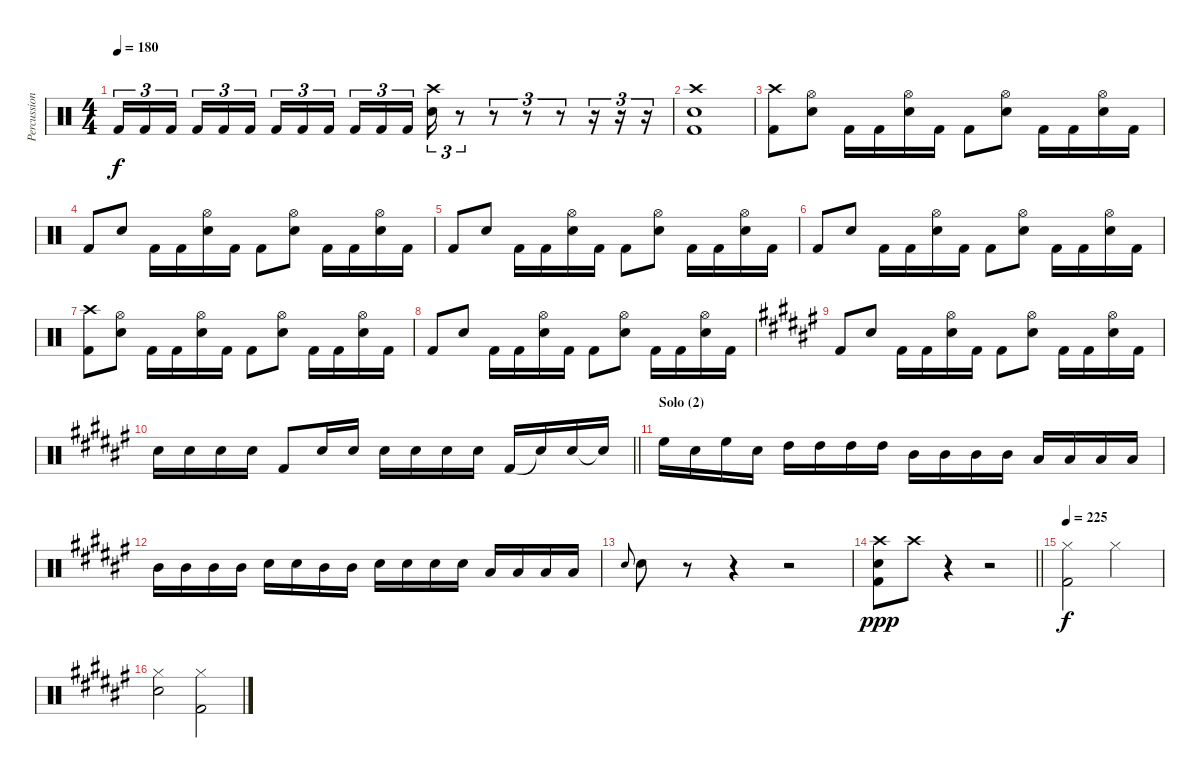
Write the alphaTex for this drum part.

\track ("Percussions" "Percussion") {instrument percussion}
\staff {score}
\articulation defaults
\ts (4 4)
\tempo 180
\clef neutral
\ks c "Kick (hit) 2".16{tu (3 2) dy f} "Kick (hit) 2".16{tu (3 2)} "Kick (hit) 2".16{tu (3 2) beam splitsecondary} "Kick (hit) 2".16{tu (3 2)} "Kick (hit) 2".16{tu (3 2)} "Kick (hit) 2".16{tu (3 2)} "Kick (hit) 2".16{tu (3 2)} "Kick (hit) 2".16{tu (3 2)} "Kick (hit) 2".16{tu (3 2) beam splitsecondary} "Kick (hit) 2".16{tu (3 2)} "Kick (hit) 2".16{tu (3 2)} "Kick (hit) 2".16{tu (3 2)}
("Crash high (hit)" "Snare (hit) 2").16{tu (3 2)} r.8{tu (3 2)} r.8{tu (3 2)} r.8{tu (3 2)} r.8{tu (3 2)} r.16{tu (3 2)} r.16{tu (3 2)} r.16{tu (3 2)} |
("Crash high (hit)" "Snare (hit) 2" "Kick (hit) 2").1 |
("Crash high (hit)" "Kick (hit) 2").8 ("Hi-Hat (open)" "Snare (hit) 2").8 "Kick (hit) 2".16 "Kick (hit) 2".16 ("Hi-Hat (open)" "Snare (hit) 2").16 "Kick (hit) 2".16 "Kick (hit) 2".8 ("Hi-Hat (open)" "Snare (hit) 2").8 "Kick (hit) 2".16 "Kick (hit) 2".16 ("Hi-Hat (open)" "Snare (hit) 2").16 "Kick (hit) 2".16 |
"Kick (hit) 2".8 "Snare (hit) 2".8 "Kick (hit) 2".16 "Kick (hit) 2".16 ("Hi-Hat (open)" "Snare (hit) 2").16 "Kick (hit) 2".16 "Kick (hit) 2".8 ("Hi-Hat (open)" "Snare (hit) 2").8 "Kick (hit) 2".16 "Kick (hit) 2".16 ("Hi-Hat (open)" "Snare (hit) 2").16 "Kick (hit) 2".16 |
"Kick (hit) 2".8 "Snare (hit) 2".8 "Kick (hit) 2".16 "Kick (hit) 2".16 ("Hi-Hat (open)" "Snare (hit) 2").16 "Kick (hit) 2".16 "Kick (hit) 2".8 ("Hi-Hat (open)" "Snare (hit) 2").8 "Kick (hit) 2".16 "Kick (hit) 2".16 ("Hi-Hat (open)" "Snare (hit) 2").16 "Kick (hit) 2".16 |
"Kick (hit) 2".8 "Snare (hit) 2".8 "Kick (hit) 2".16 "Kick (hit) 2".16 ("Hi-Hat (open)" "Snare (hit) 2").16 "Kick (hit) 2".16 "Kick (hit) 2".8 ("Hi-Hat (open)" "Snare (hit) 2").8 "Kick (hit) 2".16 "Kick (hit) 2".16 ("Hi-Hat (open)" "Snare (hit) 2").16 "Kick (hit) 2".16 |
("Crash high (hit)" "Kick (hit) 2").8 ("Hi-Hat (open)" "Snare (hit) 2").8 "Kick (hit) 2".16 "Kick (hit) 2".16 ("Hi-Hat (open)" "Snare (hit) 2").16 "Kick (hit) 2".16 "Kick (hit) 2".8 ("Hi-Hat (open)" "Snare (hit) 2").8 "Kick (hit) 2".16 "Kick (hit) 2".16 ("Hi-Hat (open)" "Snare (hit) 2").16 "Kick (hit) 2".16 |
"Kick (hit) 2".8 "Snare (hit) 2".8 "Kick (hit) 2".16 "Kick (hit) 2".16 ("Hi-Hat (open)" "Snare (hit) 2").16 "Kick (hit) 2".16 "Kick (hit) 2".8 ("Hi-Hat (open)" "Snare (hit) 2").8 "Kick (hit) 2".16 "Kick (hit) 2".16 ("Hi-Hat (open)" "Snare (hit) 2").16 "Kick (hit) 2".16 |
\ks f# "Kick (hit) 2".8 "Snare (hit) 2".8 "Kick (hit) 2".16 "Kick (hit) 2".16
("Hi-Hat (open)" "Snare (hit) 2").16 "Kick (hit) 2".16 "Kick (hit) 2".8 ("Hi-Hat (open)" "Snare (hit) 2").8 "Kick (hit) 2".16 "Kick (hit) 2".16 ("Hi-Hat (open)" "Snare (hit) 2").16 "Kick (hit) 2".16 |
\barLineRight lightlight "Snare (hit) 2".16 "Snare (hit) 2".16 "Snare (hit) 2".16 "Snare (hit) 2".16 "Kick (hit) 2".8 "Snare (hit) 2".16 "Snare (hit) 2".16 "Snare (hit) 2".16 "Snare (hit) 2".16 "Snare (hit) 2".16 "Snare (hit) 2".16 "Kick (hit) 2".16 "Snare (hit)"{t}.16 "Snare (hit) 2".16 "Snare (hit) 2"{t}.16
|
\section ("" "Solo (2)")
"High Floor Tom (hit)".16 "Snare (hit) 2".16 "High Floor Tom (hit)".16 "Snare (hit) 2".16 "High Tom (hit)".16 "High Tom (hit)".16 "High Tom (hit)".16 "High Tom (hit)".16 "Mid Tom (hit)".16 "Mid Tom (hit)".16 "Mid Tom (hit)".16 "Mid Tom (hit)".16 "Low Tom (hit)".16 "Low Tom (hit)".16 "Low Tom (hit)".16 "Low Tom (hit)".16 |
"Mid Tom (hit)".16 "Mid Tom (hit)".16 "Mid Tom (hit)".16 "Mid Tom (hit)".16 "Snare (hit) 2".16 "Snare (hit) 2".16 "Mid Tom (hit)".16 "Mid Tom (hit)".16 "Snare (hit) 2".16 "Snare (hit) 2".16 "Snare (hit) 2".16 "Snare (hit) 2".16 "Low Tom (hit)".16 "Low Tom (hit)".16 "Low Tom (hit)".16 "Low Tom (hit)".16 |
"Snare (hit) 2".8{gr onbeat} "Snare (hit) 2".8 r.8 r.4 r.2 |
\barLineRight lightlight
("Crash high (hit)" "Snare (hit) 2" "Kick (hit) 2").8{dy ppp} "Crash high (hit)".8 r.4 r.2 |
\tempo 225
("Hi-Hat (closed)" "Kick (hit) 2").2{dy f} "Hi-Hat (closed)".2 |
("Hi-Hat (closed)" "Snare (hit) 2").2 ("Hi-Hat (closed)" "Kick (hit) 2").2
